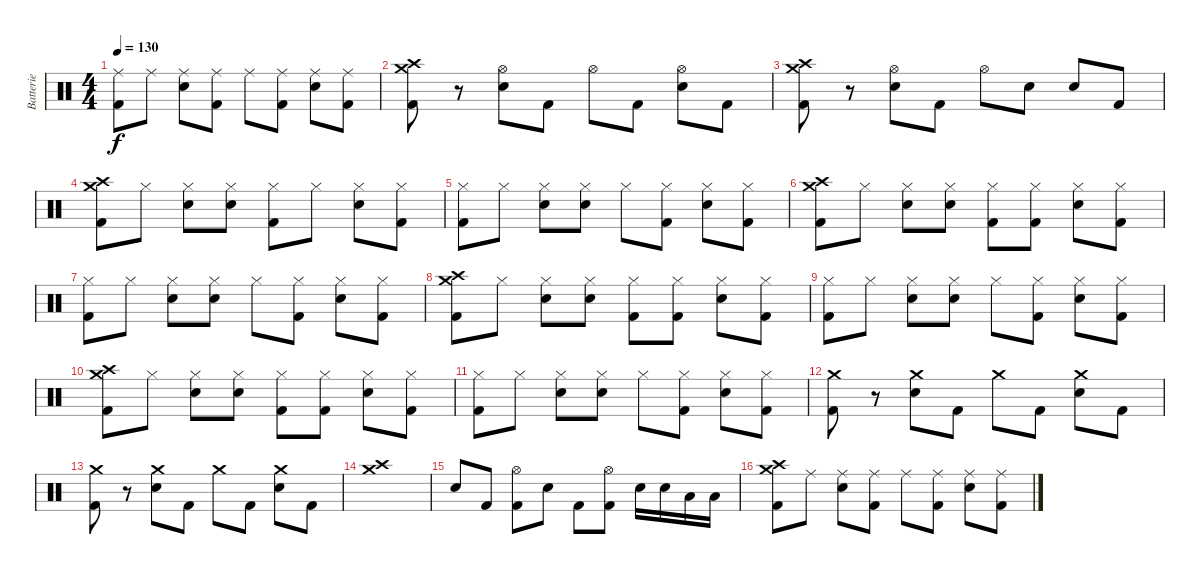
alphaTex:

\track ("Batterie" "Batterie") {instrument percussion}
\staff {score}
\articulation defaults
\ts (4 4)
\tempo 130
\clef neutral
\ks c
("Ride (middle)" "Kick (hit) 2").8{dy f} "Ride (middle)".8 ("Ride (middle)" "Snare (hit) 2").8 ("Ride (middle)" "Kick (hit) 2").8 "Ride (middle)".8 ("Ride (middle)" "Kick (hit) 2").8 ("Ride (middle)" "Snare (hit) 2").8 ("Ride (middle)" "Kick (hit) 2").8 |
("Crash high (hit)" "Crash medium (hit)" "Kick (hit) 2").8 r.8 ("Hi-Hat (open)" "Snare (hit) 2").8 "Kick (hit) 2".8 "Hi-Hat (open)".8 "Kick (hit) 2".8 ("Hi-Hat (open)" "Snare (hit) 2").8 "Kick (hit) 2".8 |
("Crash high (hit)" "Crash medium (hit)" "Kick (hit) 2").8 r.8 ("Hi-Hat (open)" "Snare (hit) 2").8 "Kick (hit) 2".8 "Hi-Hat (open)".8 "Snare (hit) 2".8 "Snare (hit) 2".8 "Kick (hit) 2".8 |
("Crash high (hit)" "Crash medium (hit)" "Kick (hit) 2").8 "Hi-Hat (closed)".8 ("Hi-Hat (closed)" "Snare (hit) 2").8 ("Hi-Hat (closed)" "Snare (hit) 2").8 ("Hi-Hat (closed)" "Kick (hit) 2").8 "Hi-Hat (closed)".8 ("Hi-Hat (closed)" "Snare (hit) 2").8 ("Hi-Hat (closed)" "Kick (hit) 2").8 |
("Hi-Hat (closed)" "Kick (hit) 2").8 "Hi-Hat (closed)".8 ("Hi-Hat (closed)" "Snare (hit) 2").8 ("Hi-Hat (closed)" "Snare (hit) 2").8 "Hi-Hat (closed)".8 ("Hi-Hat (closed)" "Kick (hit) 2").8 ("Hi-Hat (closed)" "Snare (hit) 2").8 ("Hi-Hat (closed)" "Kick (hit) 2").8 |
("Crash high (hit)" "Crash medium (hit)" "Kick (hit) 2").8 "Hi-Hat (closed)".8 ("Hi-Hat (closed)" "Snare (hit) 2").8 ("Hi-Hat (closed)" "Snare (hit) 2").8 ("Hi-Hat (closed)" "Kick (hit) 2").8 ("Hi-Hat (closed)" "Kick (hit) 2").8 ("Hi-Hat (closed)" "Snare (hit) 2").8 ("Hi-Hat (closed)" "Kick (hit) 2").8 |
("Hi-Hat (closed)" "Kick (hit) 2").8 "Hi-Hat (closed)".8 ("Hi-Hat (closed)" "Snare (hit) 2").8 ("Hi-Hat (closed)" "Snare (hit) 2").8 "Hi-Hat (closed)".8 ("Hi-Hat (closed)" "Kick (hit) 2").8 ("Hi-Hat (closed)" "Snare (hit) 2").8 ("Hi-Hat (closed)" "Kick (hit) 2").8 |
("Crash high (hit)" "Crash medium (hit)" "Kick (hit) 2").8 "Hi-Hat (closed)".8 ("Hi-Hat (closed)" "Snare (hit) 2").8 ("Hi-Hat (closed)" "Snare (hit) 2").8 ("Hi-Hat (closed)" "Kick (hit) 2").8 ("Hi-Hat (closed)" "Kick (hit) 2").8 ("Hi-Hat (closed)" "Snare (hit) 2").8 ("Hi-Hat (closed)" "Kick (hit) 2").8 |
("Hi-Hat (closed)" "Kick (hit) 2").8 "Hi-Hat (closed)".8 ("Hi-Hat (closed)" "Snare (hit) 2").8 ("Hi-Hat (closed)" "Snare (hit) 2").8 "Hi-Hat (closed)".8 ("Hi-Hat (closed)" "Kick (hit) 2").8 ("Hi-Hat (closed)" "Snare (hit) 2").8 ("Hi-Hat (closed)" "Kick (hit) 2").8 |
("Crash high (hit)" "Crash medium (hit)" "Kick (hit) 2").8 "Hi-Hat (closed)".8 ("Hi-Hat (closed)" "Snare (hit) 2").8 ("Hi-Hat (closed)" "Snare (hit) 2").8 ("Hi-Hat (closed)" "Kick (hit) 2").8 ("Hi-Hat (closed)" "Kick (hit) 2").8 ("Hi-Hat (closed)" "Snare (hit) 2").8 ("Hi-Hat (closed)" "Kick (hit) 2").8 |
("Hi-Hat (closed)" "Kick (hit) 2").8 "Hi-Hat (closed)".8 ("Hi-Hat (closed)" "Snare (hit) 2").8 ("Hi-Hat (closed)" "Snare (hit) 2").8 "Hi-Hat (closed)".8 ("Hi-Hat (closed)" "Kick (hit) 2").8 ("Hi-Hat (closed)" "Snare (hit) 2").8 ("Hi-Hat (closed)" "Kick (hit) 2").8 |
("Crash medium (hit)" "Kick (hit) 2").8 r.8 ("Crash medium (hit)" "Snare (hit) 2").8 "Kick (hit) 2".8 "Crash medium (hit)".8 "Kick (hit) 2".8 ("Crash medium (hit)" "Snare (hit) 2").8 "Kick (hit) 2".8 |
("Crash medium (hit)" "Kick (hit) 2").8 r.8 ("Crash medium (hit)" "Snare (hit) 2").8 "Kick (hit) 2".8 "Crash medium (hit)".8 "Kick (hit) 2".8 ("Crash medium (hit)" "Snare (hit) 2").8 "Kick (hit) 2".8 |
("Crash high (hit)" "Crash medium (hit)").1 |
"Snare (hit) 2".8 "Kick (hit) 2".8 ("Hi-Hat (open)" "Kick (hit) 2").8 "Snare (hit) 2".8 "Kick (hit) 2".8 ("Hi-Hat (open)" "Kick (hit) 2").8 "Snare (hit) 2".16 "Snare (hit) 2".16 "Low Tom (hit)".16 "Low Tom (hit)".16 |
("Crash high (hit)" "Crash medium (hit)" "Kick (hit) 2").8 "Ride (middle)".8 ("Ride (middle)" "Snare (hit) 2").8 ("Ride (middle)" "Kick (hit) 2").8 "Ride (middle)".8 ("Ride (middle)" "Kick (hit) 2").8 ("Ride (middle)" "Snare (hit) 2").8 ("Ride (middle)" "Kick (hit) 2").8
